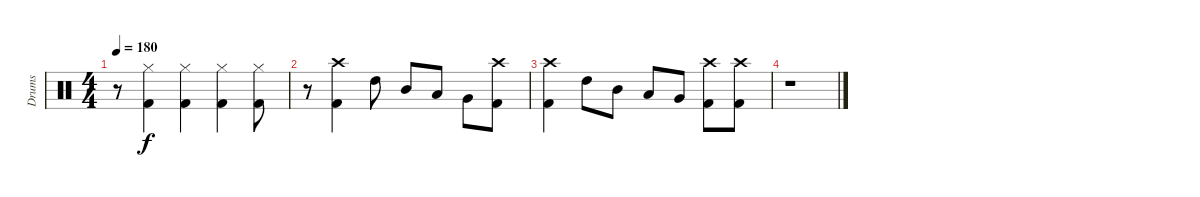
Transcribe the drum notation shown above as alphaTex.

\track ("Drums" "Drums") {instrument percussion}
\staff {score}
\articulation defaults
\ts (4 4)
\tempo 180
\clef neutral
\ks c
r.8{dy f} ("Hi-Hat (closed)" "Kick (hit) 2").4 ("Hi-Hat (closed)" "Kick (hit) 2").4 ("Hi-Hat (closed)" "Kick (hit) 2").4 ("Hi-Hat (closed)" "Kick (hit) 2").8 |
r.8 ("Crash high (hit)" "Kick (hit) 2").4 "High Tom (hit)".8 "Mid Tom (hit)".8 "Low Tom (hit)".8 "Very Low Tom (hit)".8 ("Crash high (hit)" "Kick (hit) 2").8 |
("Crash high (hit)" "Kick (hit) 2").4 "High Tom (hit)".8 "Mid Tom (hit)".8 "Low Tom (hit)".8 "Very Low Tom (hit)".8 ("Crash high (hit)" "Kick (hit) 2").8 ("Crash high (hit)" "Kick (hit) 2").8 |
r.1
